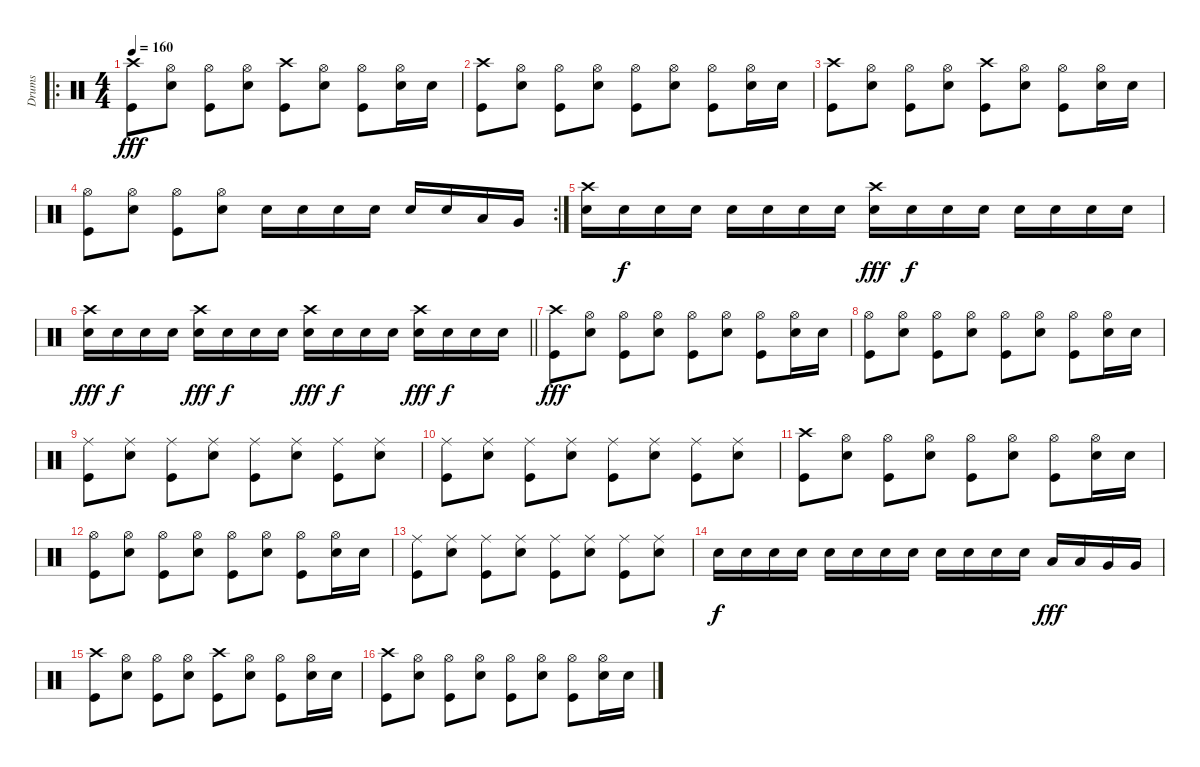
\track ("Drums" "Drums") {instrument percussion}
\staff {score}
\articulation defaults
\ro
\ts (4 4)
\tempo 160
\clef neutral
\ks c
("Crash high (hit)" "Kick (hit)").8{dy fff} ("Hi-Hat (open)" "Electric Snare (hit)").8 ("Hi-Hat (open)" "Kick (hit)").8 ("Hi-Hat (open)" "Electric Snare (hit)").8 ("Crash high (hit)" "Kick (hit)").8 ("Hi-Hat (open)" "Electric Snare (hit)").8 ("Hi-Hat (open)" "Kick (hit)").8 ("Hi-Hat (open)" "Electric Snare (hit)").16 "Electric Snare (hit)".16 |
("Crash high (hit)" "Kick (hit)").8 ("Hi-Hat (open)" "Electric Snare (hit)").8 ("Hi-Hat (open)" "Kick (hit)").8 ("Hi-Hat (open)" "Electric Snare (hit)").8 ("Hi-Hat (open)" "Kick (hit)").8 ("Hi-Hat (open)" "Electric Snare (hit)").8 ("Hi-Hat (open)" "Kick (hit)").8 ("Hi-Hat (open)" "Electric Snare (hit)").16 "Electric Snare (hit)".16 |
("Crash high (hit)" "Kick (hit)").8 ("Hi-Hat (open)" "Electric Snare (hit)").8 ("Hi-Hat (open)" "Kick (hit)").8 ("Hi-Hat (open)" "Electric Snare (hit)").8 ("Crash high (hit)" "Kick (hit)").8 ("Hi-Hat (open)" "Electric Snare (hit)").8 ("Hi-Hat (open)" "Kick (hit)").8 ("Hi-Hat (open)" "Electric Snare (hit)").16 "Electric Snare (hit)".16 |
\rc 2
("Hi-Hat (open)" "Kick (hit)").8 ("Hi-Hat (open)" "Electric Snare (hit)").8 ("Hi-Hat (open)" "Kick (hit)").8 ("Hi-Hat (open)" "Electric Snare (hit)").8 "Electric Snare (hit)".16 "Electric Snare (hit)".16 "Electric Snare (hit)".16 "Electric Snare (hit)".16 "Electric Snare (hit)".16 "Electric Snare (hit)".16 "Low Tom (hit)".16 "Very Low Tom (hit)".16 |
("Crash high (hit)" "Electric Snare (hit)").16 "Electric Snare (hit)".16{dy f} "Electric Snare (hit)".16 "Electric Snare (hit)".16 "Electric Snare (hit)".16 "Electric Snare (hit)".16 "Electric Snare (hit)".16 "Electric Snare (hit)".16 ("Crash high (hit)" "Electric Snare (hit)").16{dy fff} "Electric Snare (hit)".16{dy f} "Electric Snare (hit)".16 "Electric Snare (hit)".16 "Electric Snare (hit)".16 "Electric Snare (hit)".16 "Electric Snare (hit)".16 "Electric Snare (hit)".16 |
\barLineRight lightlight
("Crash high (hit)" "Electric Snare (hit)").16{dy fff} "Electric Snare (hit)".16{dy f} "Electric Snare (hit)".16 "Electric Snare (hit)".16 ("Crash high (hit)" "Electric Snare (hit)").16{dy fff} "Electric Snare (hit)".16{dy f} "Electric Snare (hit)".16 "Electric Snare (hit)".16 ("Crash high (hit)" "Electric Snare (hit)").16{dy fff} "Electric Snare (hit)".16{dy f} "Electric Snare (hit)".16 "Electric Snare (hit)".16 ("Crash high (hit)" "Electric Snare (hit)").16{dy fff} "Electric Snare (hit)".16{dy f} "Electric Snare (hit)".16 "Electric Snare (hit)".16 |
("Crash high (hit)" "Kick (hit)").8{dy fff} ("Hi-Hat (open)" "Electric Snare (hit)").8 ("Hi-Hat (open)" "Kick (hit)").8 ("Hi-Hat (open)" "Electric Snare (hit)").8 ("Hi-Hat (open)" "Kick (hit)").8 ("Hi-Hat (open)" "Electric Snare (hit)").8 ("Hi-Hat (open)" "Kick (hit)").8 ("Hi-Hat (open)" "Electric Snare (hit)").16 "Electric Snare (hit)".16 |
("Hi-Hat (open)" "Kick (hit)").8 ("Hi-Hat (open)" "Electric Snare (hit)").8 ("Hi-Hat (open)" "Kick (hit)").8 ("Hi-Hat (open)" "Electric Snare (hit)").8 ("Hi-Hat (open)" "Kick (hit)").8 ("Hi-Hat (open)" "Electric Snare (hit)").8 ("Hi-Hat (open)" "Kick (hit)").8 ("Hi-Hat (open)" "Electric Snare (hit)").16 "Electric Snare (hit)".16 |
("Ride (middle)" "Kick (hit)").8 ("Ride (middle)" "Electric Snare (hit)").8 ("Ride (middle)" "Kick (hit)").8 ("Ride (middle)" "Electric Snare (hit)").8 ("Ride (middle)" "Kick (hit)").8 ("Ride (middle)" "Electric Snare (hit)").8 ("Ride (middle)" "Kick (hit)").8 ("Ride (middle)" "Electric Snare (hit)").8 |
("Ride (middle)" "Kick (hit)").8 ("Ride (middle)" "Electric Snare (hit)").8 ("Ride (middle)" "Kick (hit)").8 ("Ride (middle)" "Electric Snare (hit)").8 ("Ride (middle)" "Kick (hit)").8 ("Ride (middle)" "Electric Snare (hit)").8 ("Ride (middle)" "Kick (hit)").8 ("Ride (middle)" "Electric Snare (hit)").8 |
("Crash high (hit)" "Kick (hit)").8 ("Hi-Hat (open)" "Electric Snare (hit)").8 ("Hi-Hat (open)" "Kick (hit)").8 ("Hi-Hat (open)" "Electric Snare (hit)").8 ("Hi-Hat (open)" "Kick (hit)").8 ("Hi-Hat (open)" "Electric Snare (hit)").8 ("Hi-Hat (open)" "Kick (hit)").8 ("Hi-Hat (open)" "Electric Snare (hit)").16 "Electric Snare (hit)".16 |
("Hi-Hat (open)" "Kick (hit)").8 ("Hi-Hat (open)" "Electric Snare (hit)").8 ("Hi-Hat (open)" "Kick (hit)").8 ("Hi-Hat (open)" "Electric Snare (hit)").8 ("Hi-Hat (open)" "Kick (hit)").8 ("Hi-Hat (open)" "Electric Snare (hit)").8 ("Hi-Hat (open)" "Kick (hit)").8 ("Hi-Hat (open)" "Electric Snare (hit)").16 "Electric Snare (hit)".16 |
("Ride (middle)" "Kick (hit)").8 ("Ride (middle)" "Electric Snare (hit)").8 ("Ride (middle)" "Kick (hit)").8 ("Ride (middle)" "Electric Snare (hit)").8 ("Ride (middle)" "Kick (hit)").8 ("Ride (middle)" "Electric Snare (hit)").8 ("Ride (middle)" "Kick (hit)").8 ("Ride (middle)" "Electric Snare (hit)").8 |
"Electric Snare (hit)".16{dy f} "Electric Snare (hit)".16 "Electric Snare (hit)".16 "Electric Snare (hit)".16 "Electric Snare (hit)".16 "Electric Snare (hit)".16 "Electric Snare (hit)".16 "Electric Snare (hit)".16 "Electric Snare (hit)".16 "Electric Snare (hit)".16 "Electric Snare (hit)".16 "Electric Snare (hit)".16 "Low Tom (hit)".16{dy fff} "Low Tom (hit)".16 "Very Low Tom (hit)".16 "Very Low Tom (hit)".16 |
("Crash high (hit)" "Kick (hit)").8 ("Hi-Hat (open)" "Electric Snare (hit)").8 ("Hi-Hat (open)" "Kick (hit)").8 ("Hi-Hat (open)" "Electric Snare (hit)").8 ("Crash high (hit)" "Kick (hit)").8 ("Hi-Hat (open)" "Electric Snare (hit)").8 ("Hi-Hat (open)" "Kick (hit)").8 ("Hi-Hat (open)" "Electric Snare (hit)").16 "Electric Snare (hit)".16 |
("Crash high (hit)" "Kick (hit)").8 ("Hi-Hat (open)" "Electric Snare (hit)").8 ("Hi-Hat (open)" "Kick (hit)").8 ("Hi-Hat (open)" "Electric Snare (hit)").8 ("Hi-Hat (open)" "Kick (hit)").8 ("Hi-Hat (open)" "Electric Snare (hit)").8 ("Hi-Hat (open)" "Kick (hit)").8 ("Hi-Hat (open)" "Electric Snare (hit)").16 "Electric Snare (hit)".16
